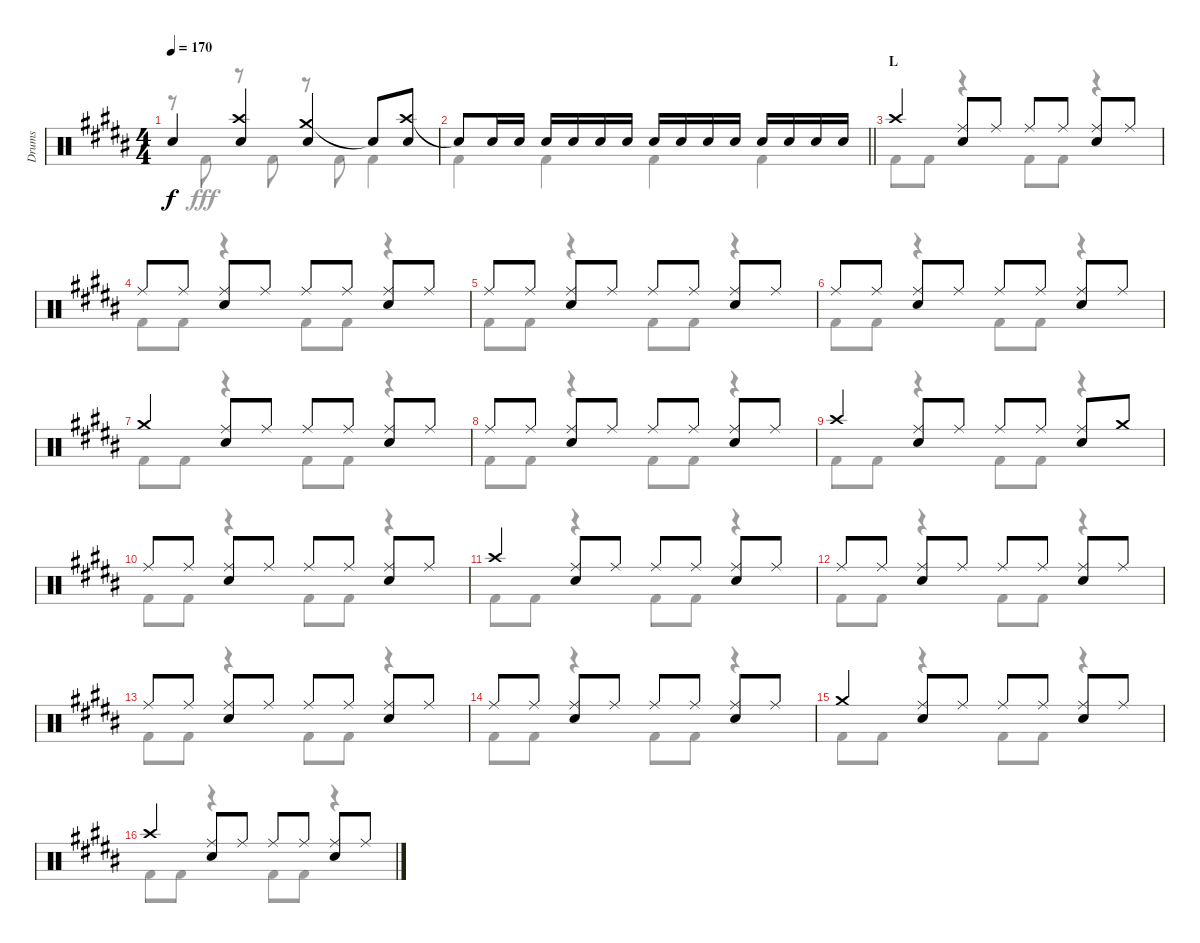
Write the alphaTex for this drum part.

\track ("Drums" "Drums") {instrument percussion}
\staff {score}
\articulation defaults
\voice
\ts (4 4)
\tempo 170
\clef neutral
\ks b "Snare (hit)"{t}.4{dy f}
("Crash high (hit)" "Snare (hit) 2").4 ("Crash medium (hit)" "Snare (hit) 2").4 "Snare (hit)"{t}.8 ("Crash high (hit)" "Snare (hit) 2").8 |
\barLineRight lightlight "Snare (hit)"{t}.8 "Snare (hit) 2".16 "Snare (hit) 2".16 "Snare (hit) 2".16 "Snare (hit) 2".16 "Snare (hit) 2".16 "Snare (hit) 2".16 "Snare (hit) 2".16 "Snare (hit) 2".16 "Snare (hit) 2".16 "Snare (hit) 2".16 "Snare (hit) 2".16 "Snare (hit) 2".16 "Snare (hit) 2".16 "Snare (hit) 2".16
|
\section ("" "L")
"Crash high (hit)".4 ("Ride (middle)" "Snare (hit) 2").8 "Ride (middle)".8 "Ride (middle)".8 "Ride (middle)".8 ("Ride (middle)" "Snare (hit) 2").8 "Ride (middle)".8 |
"Ride (middle)".8 "Ride (middle)".8 ("Ride (middle)" "Snare (hit) 2").8 "Ride (middle)".8 "Ride (middle)".8 "Ride (middle)".8 ("Ride (middle)" "Snare (hit) 2").8 "Ride (middle)".8 |
"Ride (middle)".8 "Ride (middle)".8 ("Ride (middle)" "Snare (hit) 2").8 "Ride (middle)".8 "Ride (middle)".8 "Ride (middle)".8 ("Ride (middle)" "Snare (hit) 2").8 "Ride (middle)".8 |
"Ride (middle)".8 "Ride (middle)".8 ("Ride (middle)" "Snare (hit) 2").8 "Ride (middle)".8 "Ride (middle)".8 "Ride (middle)".8 ("Ride (middle)" "Snare (hit) 2").8 "Ride (middle)".8 |
"Crash medium (hit)".4 ("Ride (middle)" "Snare (hit) 2").8 "Ride (middle)".8 "Ride (middle)".8 "Ride (middle)".8 ("Ride (middle)" "Snare (hit) 2").8 "Ride (middle)".8 |
"Ride (middle)".8 "Ride (middle)".8 ("Ride (middle)" "Snare (hit) 2").8 "Ride (middle)".8 "Ride (middle)".8 "Ride (middle)".8 ("Ride (middle)" "Snare (hit) 2").8 "Ride (middle)".8 |
"Crash high (hit)".4 ("Ride (middle)" "Snare (hit) 2").8 "Ride (middle)".8 "Ride (middle)".8 "Ride (middle)".8 ("Ride (middle)" "Snare (hit) 2").8 "Crash medium (hit)".8 |
"Ride (middle)".8 "Ride (middle)".8 ("Ride (middle)" "Snare (hit) 2").8 "Ride (middle)".8 "Ride (middle)".8 "Ride (middle)".8 ("Ride (middle)" "Snare (hit) 2").8 "Ride (middle)".8 |
"Crash high (hit)".4 ("Ride (middle)" "Snare (hit) 2").8 "Ride (middle)".8 "Ride (middle)".8 "Ride (middle)".8 ("Ride (middle)" "Snare (hit) 2").8 "Ride (middle)".8 |
"Ride (middle)".8 "Ride (middle)".8 ("Ride (middle)" "Snare (hit) 2").8 "Ride (middle)".8 "Ride (middle)".8 "Ride (middle)".8 ("Ride (middle)" "Snare (hit) 2").8 "Ride (middle)".8 |
"Ride (middle)".8 "Ride (middle)".8 ("Ride (middle)" "Snare (hit) 2").8 "Ride (middle)".8 "Ride (middle)".8 "Ride (middle)".8 ("Ride (middle)" "Snare (hit) 2").8 "Ride (middle)".8 |
"Ride (middle)".8 "Ride (middle)".8 ("Ride (middle)" "Snare (hit) 2").8 "Ride (middle)".8 "Ride (middle)".8 "Ride (middle)".8 ("Ride (middle)" "Snare (hit) 2").8 "Ride (middle)".8 |
"Crash medium (hit)".4 ("Ride (middle)" "Snare (hit) 2").8 "Ride (middle)".8 "Ride (middle)".8 "Ride (middle)".8 ("Ride (middle)" "Snare (hit) 2").8 "Ride (middle)".8 |
"Crash high (hit)".4 ("Ride (middle)" "Snare (hit) 2").8 "Ride (middle)".8 "Ride (middle)".8 "Ride (middle)".8 ("Ride (middle)" "Snare (hit) 2").8 "Ride (middle)".8
\voice
\clef neutral
\ottava regular
\simile none
\ks b
r.8{dy fff} "Kick (hit) 2".8 r.8 "Kick (hit) 2".8 r.8 "Kick (hit) 2".8 "Kick (hit) 2".4 |
\barLineRight lightlight "Kick (hit) 2".4 "Kick (hit) 2".4 "Kick (hit) 2".4 "Kick (hit) 2".4
|
"Kick (hit) 2".8 "Kick (hit) 2".8 r.4 "Kick (hit) 2".8 "Kick (hit) 2".8 r.4 |
"Kick (hit) 2".8 "Kick (hit) 2".8 r.4 "Kick (hit) 2".8 "Kick (hit) 2".8 r.4 |
"Kick (hit) 2".8 "Kick (hit) 2".8 r.4 "Kick (hit) 2".8 "Kick (hit) 2".8 r.4 |
"Kick (hit) 2".8 "Kick (hit) 2".8 r.4 "Kick (hit) 2".8 "Kick (hit) 2".8 r.4 |
"Kick (hit) 2".8 "Kick (hit) 2".8 r.4 "Kick (hit) 2".8 "Kick (hit) 2".8 r.4 |
"Kick (hit) 2".8 "Kick (hit) 2".8 r.4 "Kick (hit) 2".8 "Kick (hit) 2".8 r.4 |
"Kick (hit) 2".8 "Kick (hit) 2".8 r.4 "Kick (hit) 2".8 "Kick (hit) 2".8 r.4 |
"Kick (hit) 2".8 "Kick (hit) 2".8 r.4 "Kick (hit) 2".8 "Kick (hit) 2".8 r.4 |
"Kick (hit) 2".8 "Kick (hit) 2".8 r.4 "Kick (hit) 2".8 "Kick (hit) 2".8 r.4 |
"Kick (hit) 2".8 "Kick (hit) 2".8 r.4 "Kick (hit) 2".8 "Kick (hit) 2".8 r.4 |
"Kick (hit) 2".8 "Kick (hit) 2".8 r.4 "Kick (hit) 2".8 "Kick (hit) 2".8 r.4 |
"Kick (hit) 2".8 "Kick (hit) 2".8 r.4 "Kick (hit) 2".8 "Kick (hit) 2".8 r.4 |
"Kick (hit) 2".8 "Kick (hit) 2".8 r.4 "Kick (hit) 2".8 "Kick (hit) 2".8 r.4 |
"Kick (hit) 2".8 "Kick (hit) 2".8 r.4 "Kick (hit) 2".8 "Kick (hit) 2".8 r.4
